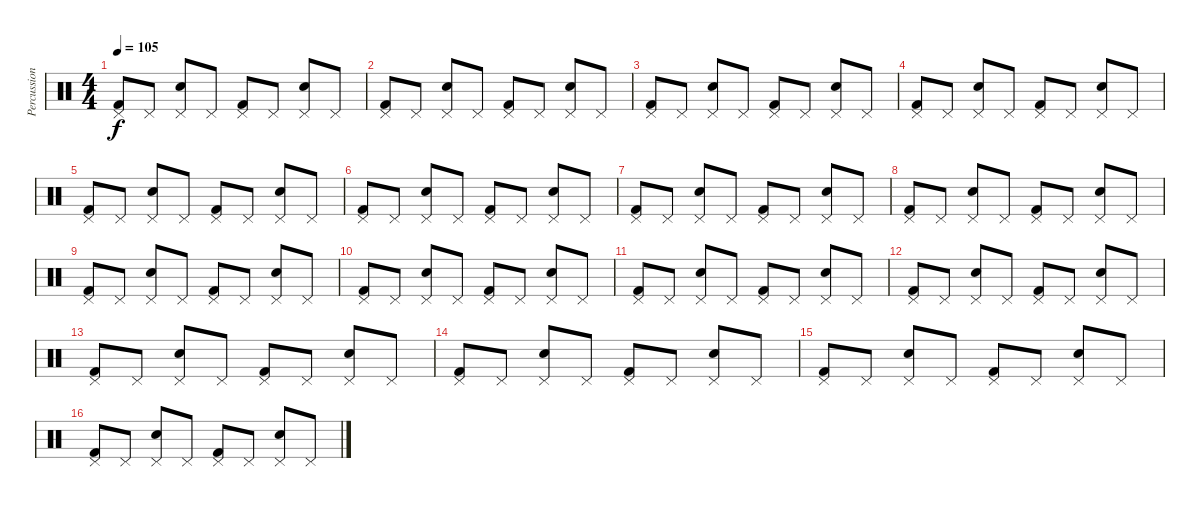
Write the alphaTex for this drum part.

\track ("Percussion" "Percussion") {instrument percussion}
\staff {score}
\articulation defaults
\ts (4 4)
\tempo 105
\clef neutral
\ks c
("Pedal Hi-Hat (hit)" "Kick (hit) 2").8{dy f} "Pedal Hi-Hat (hit)".8 ("Pedal Hi-Hat (hit)" "Snare (hit) 2").8 "Pedal Hi-Hat (hit)".8 ("Pedal Hi-Hat (hit)" "Kick (hit) 2").8 "Pedal Hi-Hat (hit)".8 ("Pedal Hi-Hat (hit)" "Snare (hit) 2").8 "Pedal Hi-Hat (hit)".8 |
("Pedal Hi-Hat (hit)" "Kick (hit) 2").8 "Pedal Hi-Hat (hit)".8 ("Pedal Hi-Hat (hit)" "Snare (hit) 2").8 "Pedal Hi-Hat (hit)".8 ("Pedal Hi-Hat (hit)" "Kick (hit) 2").8 "Pedal Hi-Hat (hit)".8 ("Pedal Hi-Hat (hit)" "Snare (hit) 2").8 "Pedal Hi-Hat (hit)".8 |
("Pedal Hi-Hat (hit)" "Kick (hit) 2").8 "Pedal Hi-Hat (hit)".8 ("Pedal Hi-Hat (hit)" "Snare (hit) 2").8 "Pedal Hi-Hat (hit)".8 ("Pedal Hi-Hat (hit)" "Kick (hit) 2").8 "Pedal Hi-Hat (hit)".8 ("Pedal Hi-Hat (hit)" "Snare (hit) 2").8 "Pedal Hi-Hat (hit)".8 |
("Pedal Hi-Hat (hit)" "Kick (hit) 2").8 "Pedal Hi-Hat (hit)".8 ("Pedal Hi-Hat (hit)" "Snare (hit) 2").8 "Pedal Hi-Hat (hit)".8 ("Pedal Hi-Hat (hit)" "Kick (hit) 2").8 "Pedal Hi-Hat (hit)".8 ("Pedal Hi-Hat (hit)" "Snare (hit) 2").8 "Pedal Hi-Hat (hit)".8 |
("Pedal Hi-Hat (hit)" "Kick (hit) 2").8 "Pedal Hi-Hat (hit)".8 ("Pedal Hi-Hat (hit)" "Snare (hit) 2").8 "Pedal Hi-Hat (hit)".8 ("Pedal Hi-Hat (hit)" "Kick (hit) 2").8 "Pedal Hi-Hat (hit)".8 ("Pedal Hi-Hat (hit)" "Snare (hit) 2").8 "Pedal Hi-Hat (hit)".8 |
("Pedal Hi-Hat (hit)" "Kick (hit) 2").8 "Pedal Hi-Hat (hit)".8 ("Pedal Hi-Hat (hit)" "Snare (hit) 2").8 "Pedal Hi-Hat (hit)".8 ("Pedal Hi-Hat (hit)" "Kick (hit) 2").8 "Pedal Hi-Hat (hit)".8 ("Pedal Hi-Hat (hit)" "Snare (hit) 2").8 "Pedal Hi-Hat (hit)".8 |
("Pedal Hi-Hat (hit)" "Kick (hit) 2").8 "Pedal Hi-Hat (hit)".8 ("Pedal Hi-Hat (hit)" "Snare (hit) 2").8 "Pedal Hi-Hat (hit)".8 ("Pedal Hi-Hat (hit)" "Kick (hit) 2").8 "Pedal Hi-Hat (hit)".8 ("Pedal Hi-Hat (hit)" "Snare (hit) 2").8 "Pedal Hi-Hat (hit)".8 |
("Pedal Hi-Hat (hit)" "Kick (hit) 2").8 "Pedal Hi-Hat (hit)".8 ("Pedal Hi-Hat (hit)" "Snare (hit) 2").8 "Pedal Hi-Hat (hit)".8 ("Pedal Hi-Hat (hit)" "Kick (hit) 2").8 "Pedal Hi-Hat (hit)".8 ("Pedal Hi-Hat (hit)" "Snare (hit) 2").8 "Pedal Hi-Hat (hit)".8 |
("Pedal Hi-Hat (hit)" "Kick (hit) 2").8 "Pedal Hi-Hat (hit)".8 ("Pedal Hi-Hat (hit)" "Snare (hit) 2").8 "Pedal Hi-Hat (hit)".8 ("Pedal Hi-Hat (hit)" "Kick (hit) 2").8 "Pedal Hi-Hat (hit)".8 ("Pedal Hi-Hat (hit)" "Snare (hit) 2").8 "Pedal Hi-Hat (hit)".8 |
("Pedal Hi-Hat (hit)" "Kick (hit) 2").8 "Pedal Hi-Hat (hit)".8 ("Pedal Hi-Hat (hit)" "Snare (hit) 2").8 "Pedal Hi-Hat (hit)".8 ("Pedal Hi-Hat (hit)" "Kick (hit) 2").8 "Pedal Hi-Hat (hit)".8 ("Pedal Hi-Hat (hit)" "Snare (hit) 2").8 "Pedal Hi-Hat (hit)".8 |
("Pedal Hi-Hat (hit)" "Kick (hit) 2").8 "Pedal Hi-Hat (hit)".8 ("Pedal Hi-Hat (hit)" "Snare (hit) 2").8 "Pedal Hi-Hat (hit)".8 ("Pedal Hi-Hat (hit)" "Kick (hit) 2").8 "Pedal Hi-Hat (hit)".8 ("Pedal Hi-Hat (hit)" "Snare (hit) 2").8 "Pedal Hi-Hat (hit)".8 |
("Pedal Hi-Hat (hit)" "Kick (hit) 2").8 "Pedal Hi-Hat (hit)".8 ("Pedal Hi-Hat (hit)" "Snare (hit) 2").8 "Pedal Hi-Hat (hit)".8 ("Pedal Hi-Hat (hit)" "Kick (hit) 2").8 "Pedal Hi-Hat (hit)".8 ("Pedal Hi-Hat (hit)" "Snare (hit) 2").8 "Pedal Hi-Hat (hit)".8 |
("Pedal Hi-Hat (hit)" "Kick (hit) 2").8 "Pedal Hi-Hat (hit)".8 ("Pedal Hi-Hat (hit)" "Snare (hit) 2").8 "Pedal Hi-Hat (hit)".8 ("Pedal Hi-Hat (hit)" "Kick (hit) 2").8 "Pedal Hi-Hat (hit)".8 ("Pedal Hi-Hat (hit)" "Snare (hit) 2").8 "Pedal Hi-Hat (hit)".8 |
("Pedal Hi-Hat (hit)" "Kick (hit) 2").8 "Pedal Hi-Hat (hit)".8 ("Pedal Hi-Hat (hit)" "Snare (hit) 2").8 "Pedal Hi-Hat (hit)".8 ("Pedal Hi-Hat (hit)" "Kick (hit) 2").8 "Pedal Hi-Hat (hit)".8 ("Pedal Hi-Hat (hit)" "Snare (hit) 2").8 "Pedal Hi-Hat (hit)".8 |
("Pedal Hi-Hat (hit)" "Kick (hit) 2").8 "Pedal Hi-Hat (hit)".8 ("Pedal Hi-Hat (hit)" "Snare (hit) 2").8 "Pedal Hi-Hat (hit)".8 ("Pedal Hi-Hat (hit)" "Kick (hit) 2").8 "Pedal Hi-Hat (hit)".8 ("Pedal Hi-Hat (hit)" "Snare (hit) 2").8 "Pedal Hi-Hat (hit)".8 |
("Pedal Hi-Hat (hit)" "Kick (hit) 2").8 "Pedal Hi-Hat (hit)".8 ("Pedal Hi-Hat (hit)" "Snare (hit) 2").8 "Pedal Hi-Hat (hit)".8 ("Pedal Hi-Hat (hit)" "Kick (hit) 2").8 "Pedal Hi-Hat (hit)".8 ("Pedal Hi-Hat (hit)" "Snare (hit) 2").8 "Pedal Hi-Hat (hit)".8
